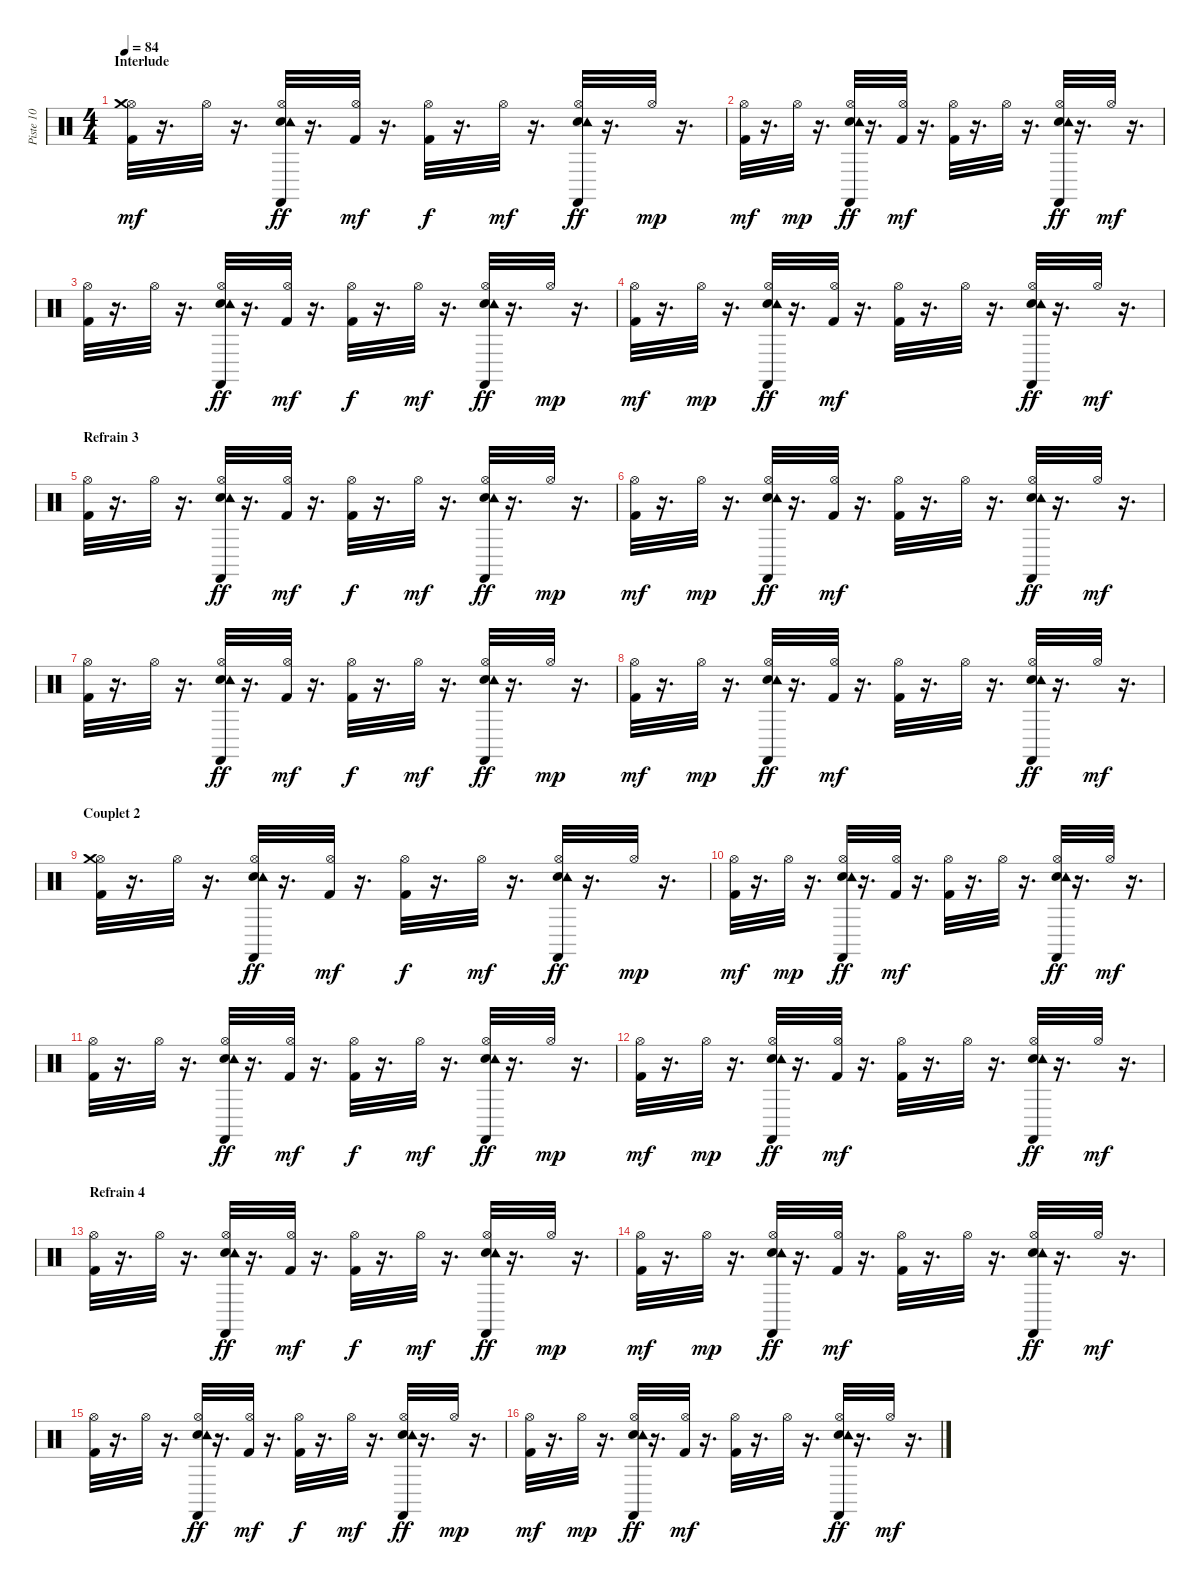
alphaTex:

\track ("Piste 10" "Piste 10") {instrument percussion}
\staff {score}
\articulation defaults
\ts (4 4)
\section ("" "Interlude")
\tempo 84
\clef neutral
\ks c
("Kick (hit) 2" "Hi-Hat (open)" "Crash medium (hit)").32{dy mf} r.16{d} "Hi-Hat (open)".32 r.16{d} ("Hi-Hat (open)" "Hand Clap (hit)" "Tambourine (hit)" "Castanets (hit)").32{dy ff} r.16{d} ("Hi-Hat (open)" "Kick (hit) 2").32{dy mf} r.16{d} ("Hi-Hat (open)" "Kick (hit) 2").32{dy f} r.16{d} "Hi-Hat (open)".32{dy mf} r.16{d} ("Hi-Hat (open)" "Hand Clap (hit)" "Tambourine (hit)" "Castanets (hit)").32{dy ff} r.16{d} "Hi-Hat (open)".32{dy mp} r.16{d} |
("Kick (hit) 2" "Hi-Hat (open)").32{dy mf} r.16{d} "Hi-Hat (open)".32{dy mp} r.16{d} ("Hi-Hat (open)" "Hand Clap (hit)" "Tambourine (hit)" "Castanets (hit)").32{dy ff} r.16{d} ("Hi-Hat (open)" "Kick (hit) 2").32{dy mf} r.16{d} ("Hi-Hat (open)" "Kick (hit) 2").32 r.16{d} "Hi-Hat (open)".32 r.16{d} ("Hand Clap (hit)" "Hi-Hat (open)" "Tambourine (hit)" "Castanets (hit)").32{dy ff} r.16{d} "Hi-Hat (open)".32{dy mf} r.16{d} |
("Kick (hit) 2" "Hi-Hat (open)").32 r.16{d} "Hi-Hat (open)".32 r.16{d} ("Hi-Hat (open)" "Hand Clap (hit)" "Tambourine (hit)" "Castanets (hit)").32{dy ff} r.16{d} ("Hi-Hat (open)" "Kick (hit) 2").32{dy mf} r.16{d} ("Hi-Hat (open)" "Kick (hit) 2").32{dy f} r.16{d} "Hi-Hat (open)".32{dy mf} r.16{d} ("Hi-Hat (open)" "Hand Clap (hit)" "Tambourine (hit)" "Castanets (hit)").32{dy ff} r.16{d} "Hi-Hat (open)".32{dy mp} r.16{d} |
("Kick (hit) 2" "Hi-Hat (open)").32{dy mf} r.16{d} "Hi-Hat (open)".32{dy mp} r.16{d} ("Hi-Hat (open)" "Hand Clap (hit)" "Tambourine (hit)" "Castanets (hit)").32{dy ff} r.16{d} ("Hi-Hat (open)" "Kick (hit) 2").32{dy mf} r.16{d} ("Hi-Hat (open)" "Kick (hit) 2").32 r.16{d} "Hi-Hat (open)".32 r.16{d} ("Hand Clap (hit)" "Hi-Hat (open)" "Tambourine (hit)" "Castanets (hit)").32{dy ff} r.16{d} "Hi-Hat (open)".32{dy mf} r.16{d} |
\section ("" "Refrain 3")
("Kick (hit) 2" "Hi-Hat (open)").32 r.16{d} "Hi-Hat (open)".32 r.16{d} ("Hi-Hat (open)" "Hand Clap (hit)" "Tambourine (hit)" "Castanets (hit)").32{dy ff} r.16{d} ("Hi-Hat (open)" "Kick (hit) 2").32{dy mf} r.16{d} ("Hi-Hat (open)" "Kick (hit) 2").32{dy f} r.16{d} "Hi-Hat (open)".32{dy mf} r.16{d} ("Hi-Hat (open)" "Hand Clap (hit)" "Tambourine (hit)" "Castanets (hit)").32{dy ff} r.16{d} "Hi-Hat (open)".32{dy mp} r.16{d} |
("Kick (hit) 2" "Hi-Hat (open)").32{dy mf} r.16{d} "Hi-Hat (open)".32{dy mp} r.16{d} ("Hi-Hat (open)" "Hand Clap (hit)" "Tambourine (hit)" "Castanets (hit)").32{dy ff} r.16{d} ("Hi-Hat (open)" "Kick (hit) 2").32{dy mf} r.16{d} ("Hi-Hat (open)" "Kick (hit) 2").32 r.16{d} "Hi-Hat (open)".32 r.16{d} ("Hand Clap (hit)" "Hi-Hat (open)" "Tambourine (hit)" "Castanets (hit)").32{dy ff} r.16{d} "Hi-Hat (open)".32{dy mf} r.16{d} |
("Kick (hit) 2" "Hi-Hat (open)").32 r.16{d} "Hi-Hat (open)".32 r.16{d} ("Hi-Hat (open)" "Hand Clap (hit)" "Tambourine (hit)" "Castanets (hit)").32{dy ff} r.16{d} ("Hi-Hat (open)" "Kick (hit) 2").32{dy mf} r.16{d} ("Hi-Hat (open)" "Kick (hit) 2").32{dy f} r.16{d} "Hi-Hat (open)".32{dy mf} r.16{d} ("Hi-Hat (open)" "Hand Clap (hit)" "Tambourine (hit)" "Castanets (hit)").32{dy ff} r.16{d} "Hi-Hat (open)".32{dy mp} r.16{d} |
("Kick (hit) 2" "Hi-Hat (open)").32{dy mf} r.16{d} "Hi-Hat (open)".32{dy mp} r.16{d} ("Hi-Hat (open)" "Hand Clap (hit)" "Tambourine (hit)" "Castanets (hit)").32{dy ff} r.16{d} ("Hi-Hat (open)" "Kick (hit) 2").32{dy mf} r.16{d} ("Hi-Hat (open)" "Kick (hit) 2").32 r.16{d} "Hi-Hat (open)".32 r.16{d} ("Hand Clap (hit)" "Hi-Hat (open)" "Tambourine (hit)" "Castanets (hit)").32{dy ff} r.16{d} "Hi-Hat (open)".32{dy mf} r.16{d} |
\section ("" "Couplet 2")
("Kick (hit) 2" "Hi-Hat (open)" "Crash medium (hit)").32 r.16{d} "Hi-Hat (open)".32 r.16{d} ("Hi-Hat (open)" "Hand Clap (hit)" "Tambourine (hit)" "Castanets (hit)").32{dy ff} r.16{d} ("Hi-Hat (open)" "Kick (hit) 2").32{dy mf} r.16{d} ("Hi-Hat (open)" "Kick (hit) 2").32{dy f} r.16{d} "Hi-Hat (open)".32{dy mf} r.16{d} ("Hi-Hat (open)" "Hand Clap (hit)" "Tambourine (hit)" "Castanets (hit)").32{dy ff} r.16{d} "Hi-Hat (open)".32{dy mp} r.16{d} |
("Kick (hit) 2" "Hi-Hat (open)").32{dy mf} r.16{d} "Hi-Hat (open)".32{dy mp} r.16{d} ("Hi-Hat (open)" "Hand Clap (hit)" "Tambourine (hit)" "Castanets (hit)").32{dy ff} r.16{d} ("Hi-Hat (open)" "Kick (hit) 2").32{dy mf} r.16{d} ("Hi-Hat (open)" "Kick (hit) 2").32 r.16{d} "Hi-Hat (open)".32 r.16{d} ("Hand Clap (hit)" "Hi-Hat (open)" "Tambourine (hit)" "Castanets (hit)").32{dy ff} r.16{d} "Hi-Hat (open)".32{dy mf} r.16{d} |
("Kick (hit) 2" "Hi-Hat (open)").32 r.16{d} "Hi-Hat (open)".32 r.16{d} ("Hi-Hat (open)" "Hand Clap (hit)" "Tambourine (hit)" "Castanets (hit)").32{dy ff} r.16{d} ("Hi-Hat (open)" "Kick (hit) 2").32{dy mf} r.16{d} ("Hi-Hat (open)" "Kick (hit) 2").32{dy f} r.16{d} "Hi-Hat (open)".32{dy mf} r.16{d} ("Hi-Hat (open)" "Hand Clap (hit)" "Tambourine (hit)" "Castanets (hit)").32{dy ff} r.16{d} "Hi-Hat (open)".32{dy mp} r.16{d} |
("Kick (hit) 2" "Hi-Hat (open)").32{dy mf} r.16{d} "Hi-Hat (open)".32{dy mp} r.16{d} ("Hi-Hat (open)" "Hand Clap (hit)" "Tambourine (hit)" "Castanets (hit)").32{dy ff} r.16{d} ("Hi-Hat (open)" "Kick (hit) 2").32{dy mf} r.16{d} ("Hi-Hat (open)" "Kick (hit) 2").32 r.16{d} "Hi-Hat (open)".32 r.16{d} ("Hand Clap (hit)" "Hi-Hat (open)" "Tambourine (hit)" "Castanets (hit)").32{dy ff} r.16{d} "Hi-Hat (open)".32{dy mf} r.16{d} |
\section ("" "Refrain 4")
("Kick (hit) 2" "Hi-Hat (open)").32 r.16{d} "Hi-Hat (open)".32 r.16{d} ("Hi-Hat (open)" "Hand Clap (hit)" "Tambourine (hit)" "Castanets (hit)").32{dy ff} r.16{d} ("Hi-Hat (open)" "Kick (hit) 2").32{dy mf} r.16{d} ("Hi-Hat (open)" "Kick (hit) 2").32{dy f} r.16{d} "Hi-Hat (open)".32{dy mf} r.16{d} ("Hi-Hat (open)" "Hand Clap (hit)" "Tambourine (hit)" "Castanets (hit)").32{dy ff} r.16{d} "Hi-Hat (open)".32{dy mp} r.16{d} |
("Kick (hit) 2" "Hi-Hat (open)").32{dy mf} r.16{d} "Hi-Hat (open)".32{dy mp} r.16{d} ("Hi-Hat (open)" "Hand Clap (hit)" "Tambourine (hit)" "Castanets (hit)").32{dy ff} r.16{d} ("Hi-Hat (open)" "Kick (hit) 2").32{dy mf} r.16{d} ("Hi-Hat (open)" "Kick (hit) 2").32 r.16{d} "Hi-Hat (open)".32 r.16{d} ("Hand Clap (hit)" "Hi-Hat (open)" "Tambourine (hit)" "Castanets (hit)").32{dy ff} r.16{d} "Hi-Hat (open)".32{dy mf} r.16{d} |
("Kick (hit) 2" "Hi-Hat (open)").32 r.16{d} "Hi-Hat (open)".32 r.16{d} ("Hi-Hat (open)" "Hand Clap (hit)" "Tambourine (hit)" "Castanets (hit)").32{dy ff} r.16{d} ("Hi-Hat (open)" "Kick (hit) 2").32{dy mf} r.16{d} ("Hi-Hat (open)" "Kick (hit) 2").32{dy f} r.16{d} "Hi-Hat (open)".32{dy mf} r.16{d} ("Hi-Hat (open)" "Hand Clap (hit)" "Tambourine (hit)" "Castanets (hit)").32{dy ff} r.16{d} "Hi-Hat (open)".32{dy mp} r.16{d} |
("Kick (hit) 2" "Hi-Hat (open)").32{dy mf} r.16{d} "Hi-Hat (open)".32{dy mp} r.16{d} ("Hi-Hat (open)" "Hand Clap (hit)" "Tambourine (hit)" "Castanets (hit)").32{dy ff} r.16{d} ("Hi-Hat (open)" "Kick (hit) 2").32{dy mf} r.16{d} ("Hi-Hat (open)" "Kick (hit) 2").32 r.16{d} "Hi-Hat (open)".32 r.16{d} ("Hand Clap (hit)" "Hi-Hat (open)" "Tambourine (hit)" "Castanets (hit)").32{dy ff} r.16{d} "Hi-Hat (open)".32{dy mf} r.16{d}
